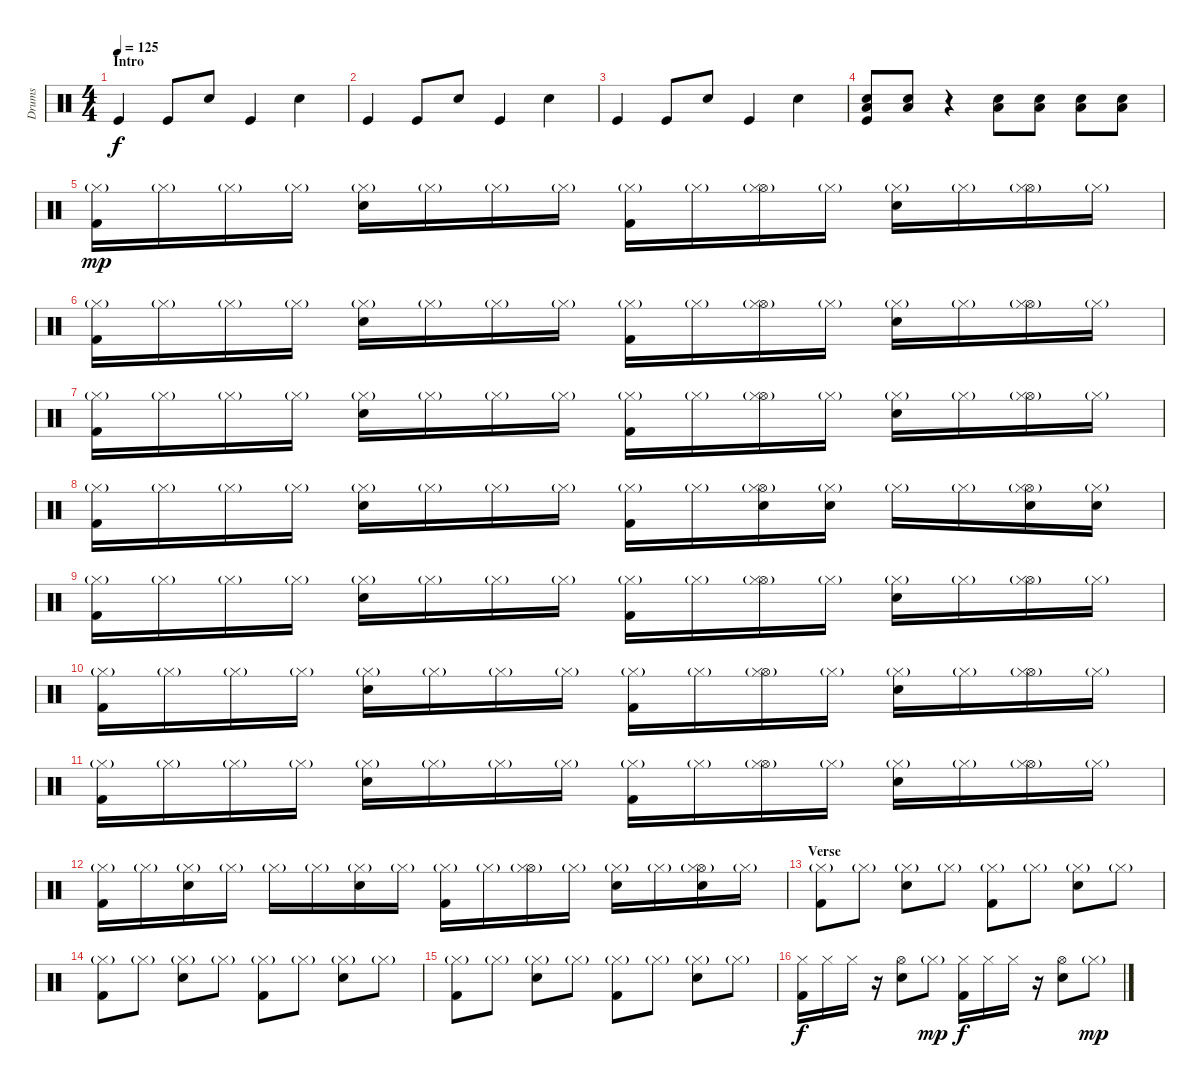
\track ("Drums" "Drums") {instrument percussion}
\staff {score}
\articulation defaults
\ts (4 4)
\section ("" "Intro")
\tempo 125
\clef neutral
\ks c "Kick (hit)".4{dy f} "Kick (hit)".8 "Snare (hit) 2".8 "Kick (hit)".4 "Snare (hit) 2".4
|
"Kick (hit)".4 "Kick (hit)".8 "Snare (hit) 2".8 "Kick (hit)".4 "Snare (hit) 2".4 |
"Kick (hit)".4 "Kick (hit)".8 "Snare (hit) 2".8 "Kick (hit)".4 "Snare (hit) 2".4 |
("Snare (hit) 2" "Low Tom (hit)" "Kick (hit)").8 ("Snare (hit) 2" "Low Tom (hit)").8 r.4 ("Snare (hit) 2" "Low Tom (hit)").8 ("Snare (hit) 2" "Low Tom (hit)").8 ("Snare (hit) 2" "Low Tom (hit)").8 ("Snare (hit) 2" "Low Tom (hit)").8 |
("Kick (hit) 2" "Hi-Hat (closed)"{g}).16{dy mp} "Hi-Hat (closed)"{g}.16 "Hi-Hat (closed)"{g}.16 "Hi-Hat (closed)"{g}.16 ("Snare (hit) 2" "Hi-Hat (closed)"{g}).16 "Hi-Hat (closed)"{g}.16 "Hi-Hat (closed)"{g}.16 "Hi-Hat (closed)"{g}.16 ("Kick (hit) 2" "Hi-Hat (closed)"{g}).16 "Hi-Hat (closed)"{g}.16 ("Hi-Hat (open)"{g} "Hi-Hat (closed)"{g}).16 "Hi-Hat (closed)"{g}.16 ("Snare (hit) 2" "Hi-Hat (closed)"{g}).16 "Hi-Hat (closed)"{g}.16 ("Hi-Hat (open)"{g} "Hi-Hat (closed)"{g}).16 "Hi-Hat (closed)"{g}.16 |
("Kick (hit) 2" "Hi-Hat (closed)"{g}).16 "Hi-Hat (closed)"{g}.16 "Hi-Hat (closed)"{g}.16 "Hi-Hat (closed)"{g}.16 ("Snare (hit) 2" "Hi-Hat (closed)"{g}).16 "Hi-Hat (closed)"{g}.16 "Hi-Hat (closed)"{g}.16 "Hi-Hat (closed)"{g}.16 ("Kick (hit) 2" "Hi-Hat (closed)"{g}).16 "Hi-Hat (closed)"{g}.16 ("Hi-Hat (open)"{g} "Hi-Hat (closed)"{g}).16 "Hi-Hat (closed)"{g}.16 ("Snare (hit) 2" "Hi-Hat (closed)"{g}).16 "Hi-Hat (closed)"{g}.16 ("Hi-Hat (open)"{g} "Hi-Hat (closed)"{g}).16 "Hi-Hat (closed)"{g}.16 |
("Kick (hit) 2" "Hi-Hat (closed)"{g}).16 "Hi-Hat (closed)"{g}.16 "Hi-Hat (closed)"{g}.16 "Hi-Hat (closed)"{g}.16 ("Snare (hit) 2" "Hi-Hat (closed)"{g}).16 "Hi-Hat (closed)"{g}.16 "Hi-Hat (closed)"{g}.16 "Hi-Hat (closed)"{g}.16 ("Kick (hit) 2" "Hi-Hat (closed)"{g}).16 "Hi-Hat (closed)"{g}.16 ("Hi-Hat (open)"{g} "Hi-Hat (closed)"{g}).16 "Hi-Hat (closed)"{g}.16 ("Snare (hit) 2" "Hi-Hat (closed)"{g}).16 "Hi-Hat (closed)"{g}.16 ("Hi-Hat (open)"{g} "Hi-Hat (closed)"{g}).16 "Hi-Hat (closed)"{g}.16 |
("Kick (hit) 2" "Hi-Hat (closed)"{g}).16 "Hi-Hat (closed)"{g}.16 "Hi-Hat (closed)"{g}.16 "Hi-Hat (closed)"{g}.16 ("Snare (hit) 2" "Hi-Hat (closed)"{g}).16 "Hi-Hat (closed)"{g}.16 "Hi-Hat (closed)"{g}.16 "Hi-Hat (closed)"{g}.16 ("Kick (hit) 2" "Hi-Hat (closed)"{g}).16 "Hi-Hat (closed)"{g}.16 ("Hi-Hat (open)"{g} "Snare (hit) 2" "Hi-Hat (closed)"{g}).16 ("Snare (hit) 2" "Hi-Hat (closed)"{g}).16 "Hi-Hat (closed)"{g}.16 "Hi-Hat (closed)"{g}.16 ("Hi-Hat (open)"{g} "Snare (hit) 2" "Hi-Hat (closed)"{g}).16 ("Snare (hit) 2" "Hi-Hat (closed)"{g}).16 |
("Kick (hit) 2" "Hi-Hat (closed)"{g}).16 "Hi-Hat (closed)"{g}.16 "Hi-Hat (closed)"{g}.16 "Hi-Hat (closed)"{g}.16 ("Snare (hit) 2" "Hi-Hat (closed)"{g}).16 "Hi-Hat (closed)"{g}.16 "Hi-Hat (closed)"{g}.16 "Hi-Hat (closed)"{g}.16 ("Kick (hit) 2" "Hi-Hat (closed)"{g}).16 "Hi-Hat (closed)"{g}.16 ("Hi-Hat (open)"{g} "Hi-Hat (closed)"{g}).16 "Hi-Hat (closed)"{g}.16 ("Snare (hit) 2" "Hi-Hat (closed)"{g}).16 "Hi-Hat (closed)"{g}.16 ("Hi-Hat (open)"{g} "Hi-Hat (closed)"{g}).16 "Hi-Hat (closed)"{g}.16 |
("Kick (hit) 2" "Hi-Hat (closed)"{g}).16 "Hi-Hat (closed)"{g}.16 "Hi-Hat (closed)"{g}.16 "Hi-Hat (closed)"{g}.16 ("Snare (hit) 2" "Hi-Hat (closed)"{g}).16 "Hi-Hat (closed)"{g}.16 "Hi-Hat (closed)"{g}.16 "Hi-Hat (closed)"{g}.16 ("Kick (hit) 2" "Hi-Hat (closed)"{g}).16 "Hi-Hat (closed)"{g}.16 ("Hi-Hat (open)"{g} "Hi-Hat (closed)"{g}).16 "Hi-Hat (closed)"{g}.16 ("Snare (hit) 2" "Hi-Hat (closed)"{g}).16 "Hi-Hat (closed)"{g}.16 ("Hi-Hat (open)"{g} "Hi-Hat (closed)"{g}).16 "Hi-Hat (closed)"{g}.16 |
("Kick (hit) 2" "Hi-Hat (closed)"{g}).16 "Hi-Hat (closed)"{g}.16 "Hi-Hat (closed)"{g}.16 "Hi-Hat (closed)"{g}.16 ("Snare (hit) 2" "Hi-Hat (closed)"{g}).16 "Hi-Hat (closed)"{g}.16 "Hi-Hat (closed)"{g}.16 "Hi-Hat (closed)"{g}.16 ("Kick (hit) 2" "Hi-Hat (closed)"{g}).16 "Hi-Hat (closed)"{g}.16 ("Hi-Hat (open)"{g} "Hi-Hat (closed)"{g}).16 "Hi-Hat (closed)"{g}.16 ("Snare (hit) 2" "Hi-Hat (closed)"{g}).16 "Hi-Hat (closed)"{g}.16 ("Hi-Hat (open)"{g} "Hi-Hat (closed)"{g}).16 "Hi-Hat (closed)"{g}.16 |
("Kick (hit) 2" "Hi-Hat (closed)"{g}).16 "Hi-Hat (closed)"{g}.16 ("Snare (hit) 2" "Hi-Hat (closed)"{g}).16 "Hi-Hat (closed)"{g}.16 "Hi-Hat (closed)"{g}.16 "Hi-Hat (closed)"{g}.16 ("Snare (hit) 2" "Hi-Hat (closed)"{g}).16 "Hi-Hat (closed)"{g}.16 ("Kick (hit) 2" "Hi-Hat (closed)"{g}).16 "Hi-Hat (closed)"{g}.16 ("Hi-Hat (open)"{g} "Hi-Hat (closed)"{g}).16 "Hi-Hat (closed)"{g}.16 ("Snare (hit) 2" "Hi-Hat (closed)"{g}).16 "Hi-Hat (closed)"{g}.16 ("Hi-Hat (open)"{g} "Snare (hit) 2" "Hi-Hat (closed)"{g}).16 "Hi-Hat (closed)"{g}.16 |
\section ("" "Verse")
("Hi-Hat (closed)"{g} "Kick (hit) 2").8 "Hi-Hat (closed)"{g}.8 ("Hi-Hat (closed)"{g} "Snare (hit) 2").8 "Hi-Hat (closed)"{g}.8 ("Hi-Hat (closed)"{g} "Kick (hit) 2").8 "Hi-Hat (closed)"{g}.8 ("Hi-Hat (closed)"{g} "Snare (hit) 2").8 "Hi-Hat (closed)"{g}.8 |
("Hi-Hat (closed)"{g} "Kick (hit) 2").8 "Hi-Hat (closed)"{g}.8 ("Hi-Hat (closed)"{g} "Snare (hit) 2").8 "Hi-Hat (closed)"{g}.8 ("Hi-Hat (closed)"{g} "Kick (hit) 2").8 "Hi-Hat (closed)"{g}.8 ("Hi-Hat (closed)"{g} "Snare (hit) 2").8 "Hi-Hat (closed)"{g}.8 |
("Hi-Hat (closed)"{g} "Kick (hit) 2").8 "Hi-Hat (closed)"{g}.8 ("Hi-Hat (closed)"{g} "Snare (hit) 2").8 "Hi-Hat (closed)"{g}.8 ("Hi-Hat (closed)"{g} "Kick (hit) 2").8 "Hi-Hat (closed)"{g}.8 ("Hi-Hat (closed)"{g} "Snare (hit) 2").8 "Hi-Hat (closed)"{g}.8 |
("Hi-Hat (closed)" "Kick (hit) 2").16{dy f balance 0} "Hi-Hat (closed)".16 "Hi-Hat (closed)".16 r.16 ("Hi-Hat (open)" "Snare (hit) 2").8 "Hi-Hat (closed)"{g}.8{dy mp balance 16} ("Hi-Hat (closed)" "Kick (hit) 2").16{dy f} "Hi-Hat (closed)".16 "Hi-Hat (closed)".16 r.16 ("Hi-Hat (open)" "Snare (hit) 2").8 "Hi-Hat (closed)"{g}.8{dy mp}
